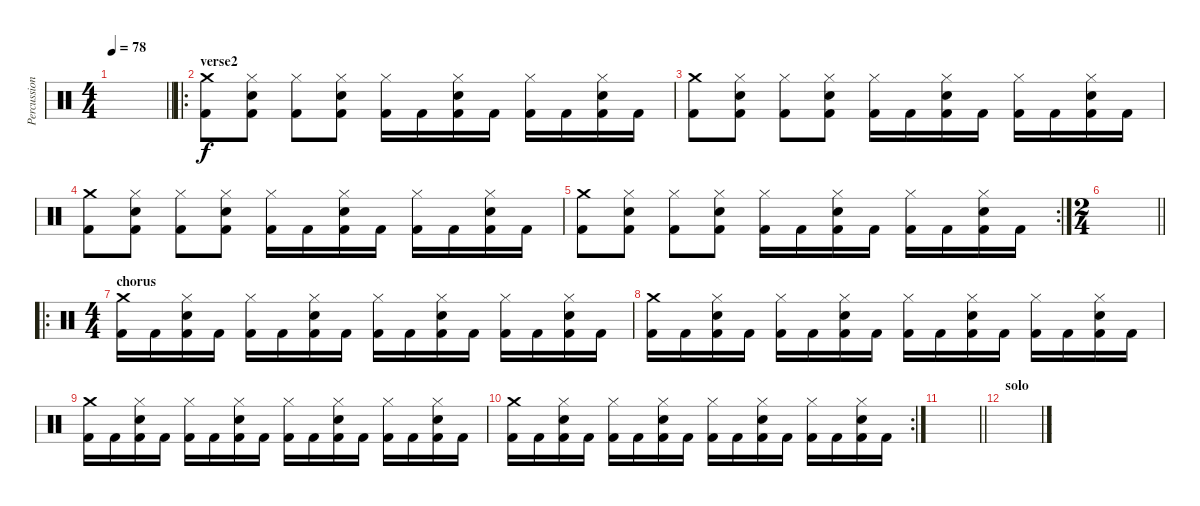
\track ("Percussions" "Percussion") {instrument percussion}
\staff {score}
\articulation defaults
\ts (4 4)
\tempo 78
\clef neutral
\barLineRight lightlight
\ks c
|
\ro
\section ("" "verse2")
("Crash medium (hit)" "Kick (hit) 2").8 ("Hi-Hat (closed)" "Electric Snare (hit)" "Kick (hit) 2").8 ("Hi-Hat (closed)" "Kick (hit) 2").8 ("Hi-Hat (closed)" "Electric Snare (hit)" "Kick (hit) 2").8 ("Hi-Hat (closed)" "Kick (hit) 2").16 "Kick (hit) 2".16 ("Hi-Hat (closed)" "Electric Snare (hit)" "Kick (hit) 2").16 "Kick (hit) 2".16 ("Hi-Hat (closed)" "Kick (hit) 2").16 "Kick (hit) 2".16 ("Hi-Hat (closed)" "Electric Snare (hit)" "Kick (hit) 2").16 "Kick (hit) 2".16 |
("Crash medium (hit)" "Kick (hit) 2").8 ("Hi-Hat (closed)" "Electric Snare (hit)" "Kick (hit) 2").8 ("Hi-Hat (closed)" "Kick (hit) 2").8 ("Hi-Hat (closed)" "Electric Snare (hit)" "Kick (hit) 2").8 ("Hi-Hat (closed)" "Kick (hit) 2").16 "Kick (hit) 2".16 ("Hi-Hat (closed)" "Electric Snare (hit)" "Kick (hit) 2").16 "Kick (hit) 2".16 ("Hi-Hat (closed)" "Kick (hit) 2").16 "Kick (hit) 2".16 ("Hi-Hat (closed)" "Electric Snare (hit)" "Kick (hit) 2").16 "Kick (hit) 2".16 |
("Crash medium (hit)" "Kick (hit) 2").8 ("Hi-Hat (closed)" "Electric Snare (hit)" "Kick (hit) 2").8 ("Hi-Hat (closed)" "Kick (hit) 2").8 ("Hi-Hat (closed)" "Electric Snare (hit)" "Kick (hit) 2").8 ("Hi-Hat (closed)" "Kick (hit) 2").16 "Kick (hit) 2".16 ("Hi-Hat (closed)" "Electric Snare (hit)" "Kick (hit) 2").16 "Kick (hit) 2".16 ("Hi-Hat (closed)" "Kick (hit) 2").16 "Kick (hit) 2".16 ("Hi-Hat (closed)" "Electric Snare (hit)" "Kick (hit) 2").16 "Kick (hit) 2".16 |
\rc 2
("Crash medium (hit)" "Kick (hit) 2").8 ("Hi-Hat (closed)" "Electric Snare (hit)" "Kick (hit) 2").8 ("Hi-Hat (closed)" "Kick (hit) 2").8 ("Hi-Hat (closed)" "Electric Snare (hit)" "Kick (hit) 2").8 ("Hi-Hat (closed)" "Kick (hit) 2").16 "Kick (hit) 2".16 ("Hi-Hat (closed)" "Electric Snare (hit)" "Kick (hit) 2").16 "Kick (hit) 2".16 ("Hi-Hat (closed)" "Kick (hit) 2").16 "Kick (hit) 2".16 ("Hi-Hat (closed)" "Electric Snare (hit)" "Kick (hit) 2").16 "Kick (hit) 2".16 |
\ts (2 4)
\barLineRight lightlight
|
\ro
\ts (4 4)
\section ("" "chorus")
("Crash medium (hit)" "Kick (hit) 2").16 "Kick (hit) 2".16 ("Hi-Hat (closed)" "Electric Snare (hit)" "Kick (hit) 2").16 "Kick (hit) 2".16 ("Hi-Hat (closed)" "Kick (hit) 2").16 "Kick (hit) 2".16 ("Hi-Hat (closed)" "Electric Snare (hit)" "Kick (hit) 2").16 "Kick (hit) 2".16 ("Hi-Hat (closed)" "Kick (hit) 2").16 "Kick (hit) 2".16 ("Hi-Hat (closed)" "Electric Snare (hit)" "Kick (hit) 2").16 "Kick (hit) 2".16 ("Hi-Hat (closed)" "Kick (hit) 2").16 "Kick (hit) 2".16 ("Hi-Hat (closed)" "Electric Snare (hit)" "Kick (hit) 2").16 "Kick (hit) 2".16 |
("Crash medium (hit)" "Kick (hit) 2").16 "Kick (hit) 2".16 ("Hi-Hat (closed)" "Electric Snare (hit)" "Kick (hit) 2").16 "Kick (hit) 2".16 ("Hi-Hat (closed)" "Kick (hit) 2").16 "Kick (hit) 2".16 ("Hi-Hat (closed)" "Electric Snare (hit)" "Kick (hit) 2").16 "Kick (hit) 2".16 ("Hi-Hat (closed)" "Kick (hit) 2").16 "Kick (hit) 2".16 ("Hi-Hat (closed)" "Electric Snare (hit)" "Kick (hit) 2").16 "Kick (hit) 2".16 ("Hi-Hat (closed)" "Kick (hit) 2").16 "Kick (hit) 2".16 ("Hi-Hat (closed)" "Electric Snare (hit)" "Kick (hit) 2").16 "Kick (hit) 2".16 |
("Crash medium (hit)" "Kick (hit) 2").16 "Kick (hit) 2".16 ("Hi-Hat (closed)" "Electric Snare (hit)" "Kick (hit) 2").16 "Kick (hit) 2".16 ("Hi-Hat (closed)" "Kick (hit) 2").16 "Kick (hit) 2".16 ("Hi-Hat (closed)" "Electric Snare (hit)" "Kick (hit) 2").16 "Kick (hit) 2".16 ("Hi-Hat (closed)" "Kick (hit) 2").16 "Kick (hit) 2".16 ("Hi-Hat (closed)" "Electric Snare (hit)" "Kick (hit) 2").16 "Kick (hit) 2".16 ("Hi-Hat (closed)" "Kick (hit) 2").16 "Kick (hit) 2".16 ("Hi-Hat (closed)" "Electric Snare (hit)" "Kick (hit) 2").16 "Kick (hit) 2".16 |
\rc 2
("Crash medium (hit)" "Kick (hit) 2").16 "Kick (hit) 2".16 ("Hi-Hat (closed)" "Electric Snare (hit)" "Kick (hit) 2").16 "Kick (hit) 2".16 ("Hi-Hat (closed)" "Kick (hit) 2").16 "Kick (hit) 2".16 ("Hi-Hat (closed)" "Electric Snare (hit)" "Kick (hit) 2").16 "Kick (hit) 2".16 ("Hi-Hat (closed)" "Kick (hit) 2").16 "Kick (hit) 2".16 ("Hi-Hat (closed)" "Electric Snare (hit)" "Kick (hit) 2").16 "Kick (hit) 2".16 ("Hi-Hat (closed)" "Kick (hit) 2").16 "Kick (hit) 2".16 ("Hi-Hat (closed)" "Electric Snare (hit)" "Kick (hit) 2").16 "Kick (hit) 2".16 |
\barLineRight lightlight
|
\section ("" "solo")
